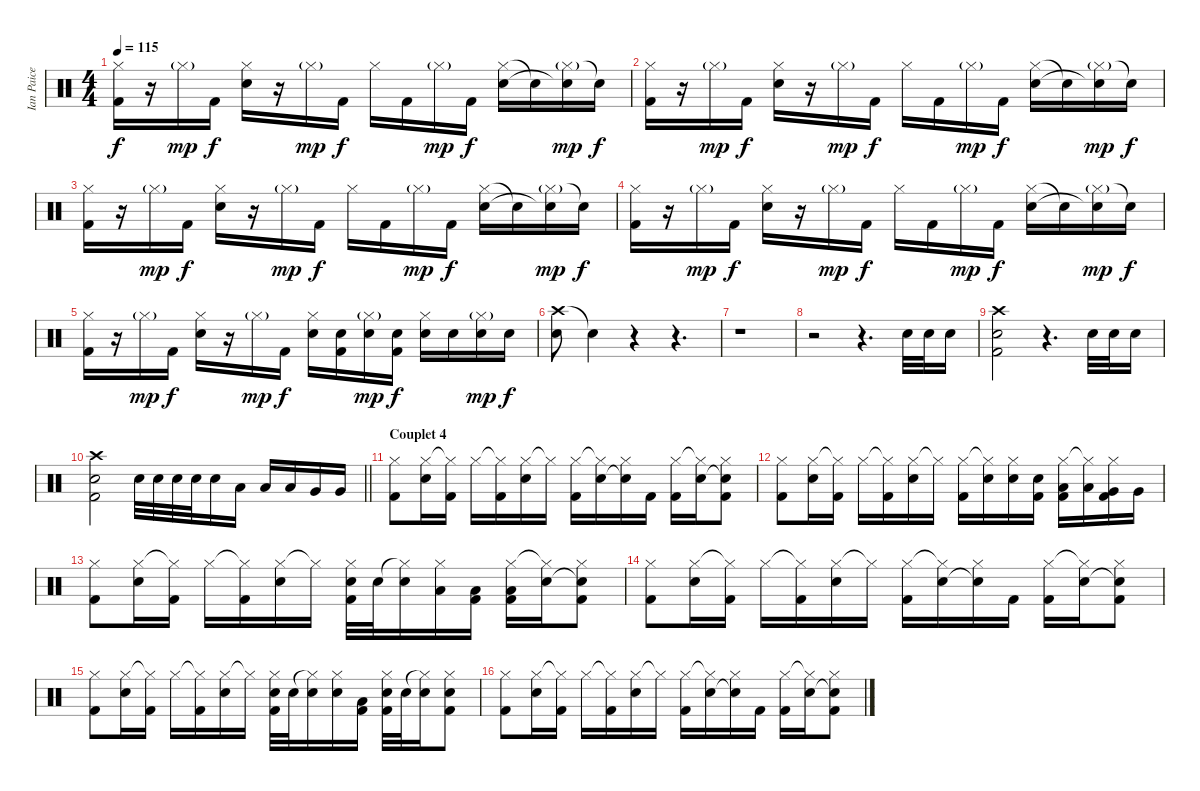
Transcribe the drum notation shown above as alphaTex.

\track ("Ian Paice" "Ian Paice") {instrument percussion}
\staff {score}
\articulation defaults
\ts (4 4)
\tempo 115
\clef neutral
\ks c
("Hi-Hat (closed)" "Kick (hit) 2").16{dy f} r.16 "Hi-Hat (closed)"{g}.16{dy mp} "Kick (hit) 2".16{dy f} ("Hi-Hat (closed)" "Snare (hit) 2").16 r.16 "Hi-Hat (closed)"{g}.16{dy mp} "Kick (hit) 2".16{dy f} "Hi-Hat (closed)".16 "Kick (hit) 2".16 "Hi-Hat (closed)"{g}.16{dy mp} "Kick (hit) 2".16{dy f} ("Hi-Hat (closed)" "Snare (hit) 2").16 "Snare (hit) 2"{t}.16 ("Hi-Hat (closed)"{g} "Snare (hit) 2"{t}).16{dy mp} "Snare (hit) 2"{t}.16{dy f} |
("Hi-Hat (closed)" "Kick (hit) 2").16 r.16 "Hi-Hat (closed)"{g}.16{dy mp} "Kick (hit) 2".16{dy f} ("Hi-Hat (closed)" "Snare (hit) 2").16 r.16 "Hi-Hat (closed)"{g}.16{dy mp} "Kick (hit) 2".16{dy f} "Hi-Hat (closed)".16 "Kick (hit) 2".16 "Hi-Hat (closed)"{g}.16{dy mp} "Kick (hit) 2".16{dy f} ("Hi-Hat (closed)" "Snare (hit) 2").16 "Snare (hit) 2"{t}.16 ("Hi-Hat (closed)"{g} "Snare (hit) 2"{t}).16{dy mp} "Snare (hit) 2"{t}.16{dy f} |
("Hi-Hat (closed)" "Kick (hit) 2").16 r.16 "Hi-Hat (closed)"{g}.16{dy mp} "Kick (hit) 2".16{dy f} ("Hi-Hat (closed)" "Snare (hit) 2").16 r.16 "Hi-Hat (closed)"{g}.16{dy mp} "Kick (hit) 2".16{dy f} "Hi-Hat (closed)".16 "Kick (hit) 2".16 "Hi-Hat (closed)"{g}.16{dy mp} "Kick (hit) 2".16{dy f} ("Hi-Hat (closed)" "Snare (hit) 2").16 "Snare (hit) 2"{t}.16 ("Hi-Hat (closed)"{g} "Snare (hit) 2"{t}).16{dy mp} "Snare (hit) 2"{t}.16{dy f} |
("Hi-Hat (closed)" "Kick (hit) 2").16 r.16 "Hi-Hat (closed)"{g}.16{dy mp} "Kick (hit) 2".16{dy f} ("Hi-Hat (closed)" "Snare (hit) 2").16 r.16 "Hi-Hat (closed)"{g}.16{dy mp} "Kick (hit) 2".16{dy f} "Hi-Hat (closed)".16 "Kick (hit) 2".16 "Hi-Hat (closed)"{g}.16{dy mp} "Kick (hit) 2".16{dy f} ("Hi-Hat (closed)" "Snare (hit) 2").16 "Snare (hit) 2"{t}.16 ("Hi-Hat (closed)"{g} "Snare (hit) 2"{t}).16{dy mp} "Snare (hit) 2"{t}.16{dy f} |
("Hi-Hat (closed)" "Kick (hit) 2").16 r.16 "Hi-Hat (closed)"{g}.16{dy mp} "Kick (hit) 2".16{dy f} ("Hi-Hat (closed)" "Snare (hit) 2").16 r.16 "Hi-Hat (closed)"{g}.16{dy mp} "Kick (hit) 2".16{dy f} ("Hi-Hat (closed)" "Snare (hit) 2").16 ("Snare (hit) 2" "Kick (hit) 2").16 ("Hi-Hat (closed)"{g} "Snare (hit) 2").16{dy mp} ("Snare (hit) 2" "Kick (hit) 2").16{dy f} ("Hi-Hat (closed)" "Snare (hit) 2").16 "Snare (hit) 2".16 ("Hi-Hat (closed)"{g} "Snare (hit) 2").16{dy mp} "Snare (hit) 2".16{dy f} |
("Crash high (hit)" "Snare (hit) 2").8 "Snare (hit)"{t}.4 r.4 r.4{d} |
r.1 |
r.2 r.4{d} "Snare (hit) 2".32 "Snare (hit) 2".32 "Snare (hit) 2".16 |
("Crash high (hit)" "Snare (hit) 2" "Kick (hit) 2").2 r.4{d} "Snare (hit) 2".32 "Snare (hit) 2".32 "Snare (hit) 2".16 |
\barLineRight lightlight
("Crash high (hit)" "Snare (hit) 2" "Kick (hit) 2").2 "Snare (hit) 2".32 "Snare (hit) 2".32 "Snare (hit) 2".32 "Snare (hit) 2".32 "Snare (hit) 2".16 "Low Tom (hit)".16 "Low Tom (hit)".16 "Low Tom (hit)".16 "Very Low Tom (hit)".16 "Very Low Tom (hit)".16 |
\section ("" "Couplet 4")
("Hi-Hat (closed)" "Kick (hit) 2").8 ("Hi-Hat (closed)" "Snare (hit) 2").16 ("Hi-Hat (closed)"{t} "Kick (hit) 2").16 "Hi-Hat (closed)".16 ("Hi-Hat (closed)"{t} "Kick (hit) 2").16 ("Hi-Hat (closed)" "Snare (hit) 2").16 "Hi-Hat (closed)"{t}.16 ("Hi-Hat (closed)" "Kick (hit) 2").16 ("Hi-Hat (closed)"{t} "Snare (hit) 2").16 ("Hi-Hat (closed)" "Snare (hit) 2"{t}).16 "Kick (hit) 2".16 ("Hi-Hat (closed)" "Kick (hit) 2").16 ("Hi-Hat (closed)"{t} "Snare (hit) 2").16 ("Hi-Hat (closed)" "Snare (hit) 2"{t} "Kick (hit) 2").8 |
("Hi-Hat (closed)" "Kick (hit) 2").8 ("Hi-Hat (closed)" "Snare (hit) 2").16 ("Hi-Hat (closed)"{t} "Kick (hit) 2").16 "Hi-Hat (closed)".16 ("Hi-Hat (closed)"{t} "Kick (hit) 2").16 ("Hi-Hat (closed)" "Snare (hit) 2").16 "Hi-Hat (closed)"{t}.16 ("Hi-Hat (closed)" "Kick (hit) 2").16 ("Hi-Hat (closed)"{t} "Snare (hit) 2").16 ("Hi-Hat (closed)" "Snare (hit) 2").16 ("Snare (hit) 2" "Kick (hit) 2").16 ("Hi-Hat (closed)" "Low Tom (hit)" "Kick (hit) 2").16 ("Hi-Hat (closed)"{t} "Low Tom (hit)").16 ("Hi-Hat (closed)" "Very Low Tom (hit)" "Kick (hit) 2").16 "Very Low Tom (hit)".16 |
("Hi-Hat (closed)" "Kick (hit) 2").8 ("Hi-Hat (closed)" "Snare (hit) 2").16 ("Hi-Hat (closed)"{t} "Kick (hit) 2").16 "Hi-Hat (closed)".16 ("Hi-Hat (closed)"{t} "Kick (hit) 2").16 ("Hi-Hat (closed)" "Snare (hit) 2").16 "Hi-Hat (closed)"{t}.16 ("Hi-Hat (closed)" "Snare (hit) 2" "Kick (hit) 2").32 "Snare (hit) 2".32 ("Hi-Hat (closed)"{t} "Snare (hit) 2").16 ("Hi-Hat (closed)" "Low Tom (hit)").16 ("Low Tom (hit)" "Kick (hit) 2").16 ("Hi-Hat (closed)" "Low Tom (hit)" "Kick (hit) 2").16 ("Hi-Hat (closed)"{t} "Snare (hit) 2").16 ("Hi-Hat (closed)" "Snare (hit) 2"{t} "Kick (hit) 2").8 |
("Hi-Hat (closed)" "Kick (hit) 2").8 ("Hi-Hat (closed)" "Snare (hit) 2").16 ("Hi-Hat (closed)"{t} "Kick (hit) 2").16 "Hi-Hat (closed)".16 ("Hi-Hat (closed)"{t} "Kick (hit) 2").16 ("Hi-Hat (closed)" "Snare (hit) 2").16 "Hi-Hat (closed)"{t}.16 ("Hi-Hat (closed)" "Kick (hit) 2").16 ("Hi-Hat (closed)"{t} "Snare (hit) 2").16 ("Hi-Hat (closed)" "Snare (hit) 2"{t}).16 "Kick (hit) 2".16 ("Hi-Hat (closed)" "Kick (hit) 2").16 ("Hi-Hat (closed)"{t} "Snare (hit) 2").16 ("Hi-Hat (closed)" "Snare (hit) 2"{t} "Kick (hit) 2").8 |
("Hi-Hat (closed)" "Kick (hit) 2").8 ("Hi-Hat (closed)" "Snare (hit) 2").16 ("Hi-Hat (closed)"{t} "Kick (hit) 2").16 "Hi-Hat (closed)".16 ("Hi-Hat (closed)"{t} "Kick (hit) 2").16 ("Hi-Hat (closed)" "Snare (hit) 2").16 "Hi-Hat (closed)"{t}.16 ("Hi-Hat (closed)" "Snare (hit) 2" "Kick (hit) 2").32 "Snare (hit) 2".32 ("Hi-Hat (closed)"{t} "Snare (hit) 2").16 ("Hi-Hat (closed)" "Snare (hit) 2").16 ("Low Tom (hit)" "Kick (hit) 2").16 ("Hi-Hat (closed)" "Snare (hit) 2" "Kick (hit) 2").32 "Snare (hit) 2".32 ("Hi-Hat (closed)"{t} "Snare (hit) 2").16 ("Hi-Hat (closed)" "Snare (hit) 2" "Kick (hit) 2").8 |
("Hi-Hat (closed)" "Kick (hit) 2").8 ("Hi-Hat (closed)" "Snare (hit) 2").16 ("Hi-Hat (closed)"{t} "Kick (hit) 2").16 "Hi-Hat (closed)".16 ("Hi-Hat (closed)"{t} "Kick (hit) 2").16 ("Hi-Hat (closed)" "Snare (hit) 2").16 "Hi-Hat (closed)"{t}.16 ("Hi-Hat (closed)" "Kick (hit) 2").16 ("Hi-Hat (closed)"{t} "Snare (hit) 2").16 ("Hi-Hat (closed)" "Snare (hit) 2"{t}).16 "Kick (hit) 2".16 ("Hi-Hat (closed)" "Kick (hit) 2").16 ("Hi-Hat (closed)"{t} "Snare (hit) 2").16 ("Hi-Hat (closed)" "Snare (hit) 2"{t} "Kick (hit) 2").8
